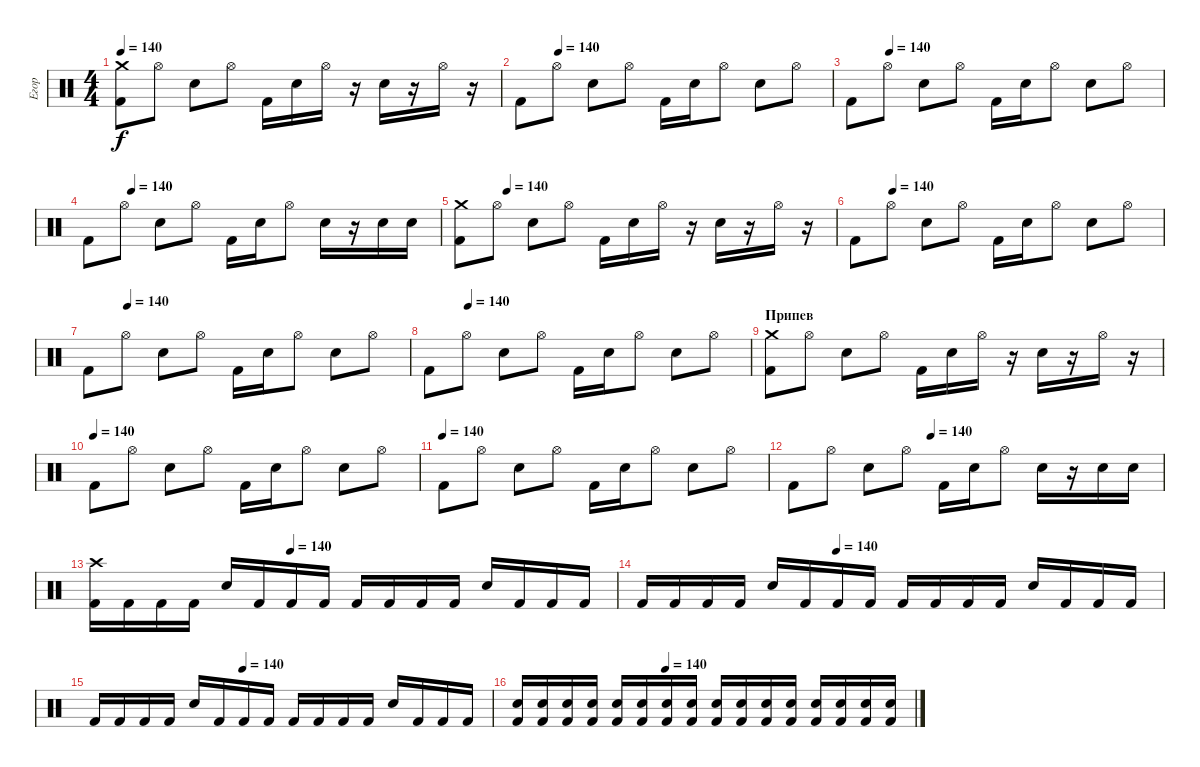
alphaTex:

\track ("Егор" "Егор") {instrument percussion}
\staff {score}
\articulation defaults
\ts (4 4)
\tempo 140
\clef neutral
\ks c
("Crash medium (hit)" "Kick (hit) 2").8{dy f} "Hi-Hat (open)".8 "Snare (hit) 2".8 "Hi-Hat (open)".8 "Kick (hit) 2".16 "Snare (hit) 2".16 "Hi-Hat (open)".16 r.16 "Snare (hit) 2".16 r.16 "Hi-Hat (open)".16 r.16 |
\tempo (140 0.125)
"Kick (hit) 2".8 "Hi-Hat (open)".8 "Snare (hit) 2".8 "Hi-Hat (open)".8 "Kick (hit) 2".16 "Snare (hit) 2".16 "Hi-Hat (open)".8 "Snare (hit) 2".8 "Hi-Hat (open)".8 |
\tempo (140 0.125)
"Kick (hit) 2".8 "Hi-Hat (open)".8 "Snare (hit) 2".8 "Hi-Hat (open)".8 "Kick (hit) 2".16 "Snare (hit) 2".16 "Hi-Hat (open)".8 "Snare (hit) 2".8 "Hi-Hat (open)".8 |
\tempo (140 0.125)
"Kick (hit) 2".8 "Hi-Hat (open)".8 "Snare (hit) 2".8 "Hi-Hat (open)".8 "Kick (hit) 2".16 "Snare (hit) 2".16 "Hi-Hat (open)".8 "Snare (hit) 2".16 r.16 "Snare (hit) 2".16 "Snare (hit) 2".16 |
\tempo (140 0.125)
("Crash medium (hit)" "Kick (hit) 2").8 "Hi-Hat (open)".8 "Snare (hit) 2".8 "Hi-Hat (open)".8 "Kick (hit) 2".16 "Snare (hit) 2".16 "Hi-Hat (open)".16 r.16 "Snare (hit) 2".16 r.16 "Hi-Hat (open)".16 r.16 |
\tempo (140 0.125)
"Kick (hit) 2".8 "Hi-Hat (open)".8 "Snare (hit) 2".8 "Hi-Hat (open)".8 "Kick (hit) 2".16 "Snare (hit) 2".16 "Hi-Hat (open)".8 "Snare (hit) 2".8 "Hi-Hat (open)".8 |
\tempo (140 0.125)
"Kick (hit) 2".8 "Hi-Hat (open)".8 "Snare (hit) 2".8 "Hi-Hat (open)".8 "Kick (hit) 2".16 "Snare (hit) 2".16 "Hi-Hat (open)".8 "Snare (hit) 2".8 "Hi-Hat (open)".8 |
\tempo (140 0.125)
"Kick (hit) 2".8 "Hi-Hat (open)".8 "Snare (hit) 2".8 "Hi-Hat (open)".8 "Kick (hit) 2".16 "Snare (hit) 2".16 "Hi-Hat (open)".8 "Snare (hit) 2".8 "Hi-Hat (open)".8 |
\section ("" "Припев")
("Crash medium (hit)" "Kick (hit) 2").8 "Hi-Hat (open)".8 "Snare (hit) 2".8 "Hi-Hat (open)".8 "Kick (hit) 2".16 "Snare (hit) 2".16 "Hi-Hat (open)".16 r.16 "Snare (hit) 2".16 r.16 "Hi-Hat (open)".16 r.16 |
\tempo (140)
"Kick (hit) 2".8 "Hi-Hat (open)".8 "Snare (hit) 2".8 "Hi-Hat (open)".8 "Kick (hit) 2".16 "Snare (hit) 2".16 "Hi-Hat (open)".8 "Snare (hit) 2".8 "Hi-Hat (open)".8 |
\tempo (140)
"Kick (hit) 2".8 "Hi-Hat (open)".8 "Snare (hit) 2".8 "Hi-Hat (open)".8 "Kick (hit) 2".16 "Snare (hit) 2".16 "Hi-Hat (open)".8 "Snare (hit) 2".8 "Hi-Hat (open)".8 |
\tempo (140 0.375)
"Kick (hit) 2".8 "Hi-Hat (open)".8 "Snare (hit) 2".8 "Hi-Hat (open)".8 "Kick (hit) 2".16 "Snare (hit) 2".16 "Hi-Hat (open)".8 "Snare (hit) 2".16 r.16 "Snare (hit) 2".16 "Snare (hit) 2".16 |
\tempo (140 0.375)
("Crash high (hit)" "Kick (hit) 2").16 "Kick (hit) 2".16 "Kick (hit) 2".16 "Kick (hit) 2".16 "Snare (hit) 2".16 "Kick (hit) 2".16 "Kick (hit) 2".16 "Kick (hit) 2".16 "Kick (hit) 2".16 "Kick (hit) 2".16 "Kick (hit) 2".16 "Kick (hit) 2".16 "Snare (hit) 2".16 "Kick (hit) 2".16 "Kick (hit) 2".16 "Kick (hit) 2".16 |
\tempo (140 0.375)
"Kick (hit) 2".16 "Kick (hit) 2".16 "Kick (hit) 2".16 "Kick (hit) 2".16 "Snare (hit) 2".16 "Kick (hit) 2".16 "Kick (hit) 2".16 "Kick (hit) 2".16 "Kick (hit) 2".16 "Kick (hit) 2".16 "Kick (hit) 2".16 "Kick (hit) 2".16 "Snare (hit) 2".16 "Kick (hit) 2".16 "Kick (hit) 2".16 "Kick (hit) 2".16 |
\tempo (140 0.375)
"Kick (hit) 2".16 "Kick (hit) 2".16 "Kick (hit) 2".16 "Kick (hit) 2".16 "Snare (hit) 2".16 "Kick (hit) 2".16 "Kick (hit) 2".16 "Kick (hit) 2".16 "Kick (hit) 2".16 "Kick (hit) 2".16 "Kick (hit) 2".16 "Kick (hit) 2".16 "Snare (hit) 2".16 "Kick (hit) 2".16 "Kick (hit) 2".16 "Kick (hit) 2".16 |
\tempo (140 0.375)
("Kick (hit) 2" "Snare (hit) 2").16 ("Kick (hit) 2" "Snare (hit) 2").16 ("Kick (hit) 2" "Snare (hit) 2").16 ("Kick (hit) 2" "Snare (hit) 2").16 ("Kick (hit) 2" "Snare (hit) 2").16 ("Kick (hit) 2" "Snare (hit) 2").16 ("Kick (hit) 2" "Snare (hit) 2").16 ("Kick (hit) 2" "Snare (hit) 2").16 ("Kick (hit) 2" "Snare (hit) 2").16 ("Kick (hit) 2" "Snare (hit) 2").16 ("Kick (hit) 2" "Snare (hit) 2").16 ("Kick (hit) 2" "Snare (hit) 2").16 ("Kick (hit) 2" "Snare (hit) 2").16 ("Kick (hit) 2" "Snare (hit) 2").16 ("Kick (hit) 2" "Snare (hit) 2").16 ("Kick (hit) 2" "Snare (hit) 2").16
